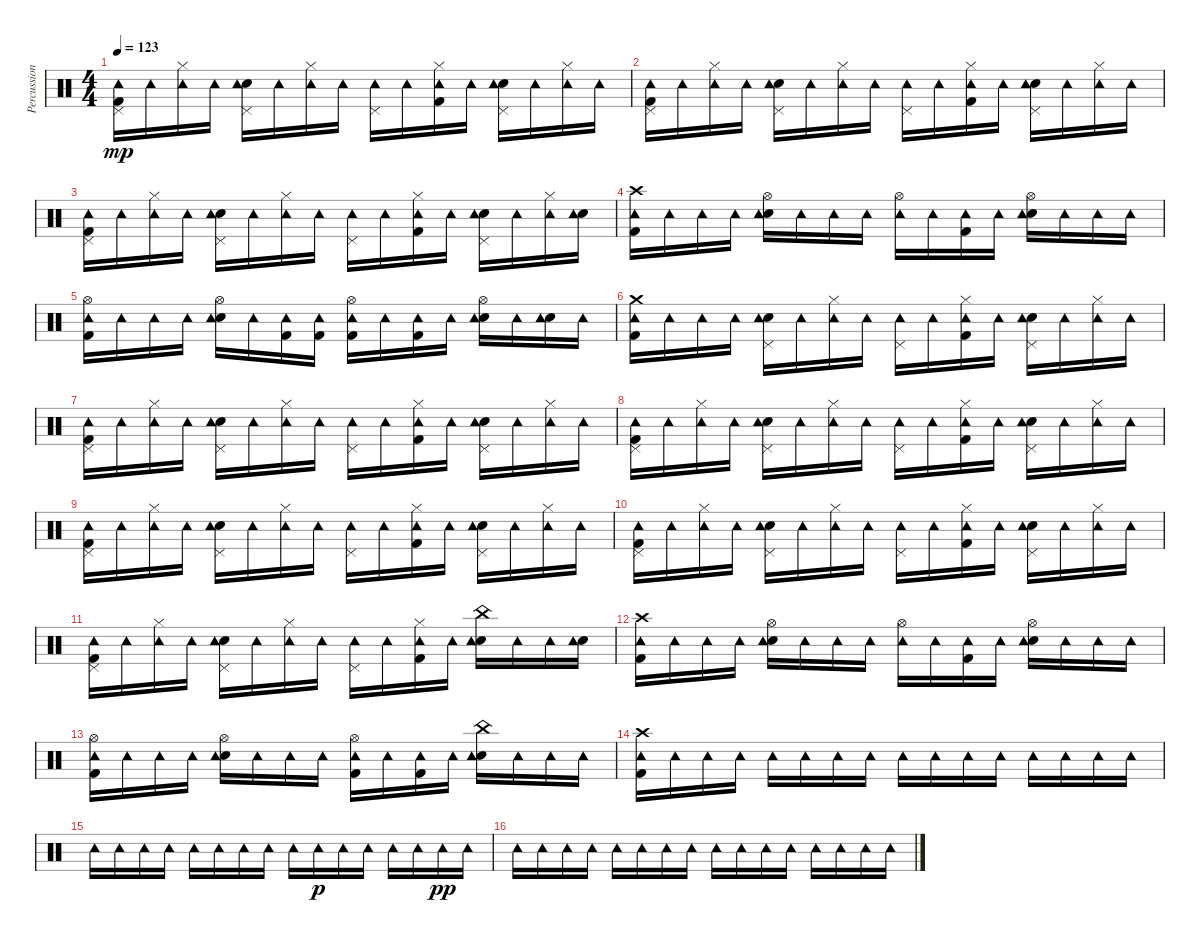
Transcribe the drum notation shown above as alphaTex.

\track ("Percussions" "Percussion") {instrument percussion}
\staff {score}
\articulation defaults
\ts (4 4)
\tempo 123
\clef neutral
\ks c
("Kick (hit) 2" "Pedal Hi-Hat (hit)" "Tambourine (hit)").16{dy mp} "Tambourine (hit)".16 ("Hi-Hat (closed)" "Tambourine (hit)").16 "Tambourine (hit)".16 ("Snare (hit) 2" "Pedal Hi-Hat (hit)" "Tambourine (hit)").16 "Tambourine (hit)".16 ("Hi-Hat (closed)" "Tambourine (hit)").16 "Tambourine (hit)".16 ("Pedal Hi-Hat (hit)" "Tambourine (hit)").16 "Tambourine (hit)".16 ("Kick (hit) 2" "Hi-Hat (closed)" "Tambourine (hit)").16 "Tambourine (hit)".16 ("Snare (hit) 2" "Pedal Hi-Hat (hit)" "Tambourine (hit)").16 "Tambourine (hit)".16 ("Hi-Hat (closed)" "Tambourine (hit)").16 "Tambourine (hit)".16 |
("Kick (hit) 2" "Pedal Hi-Hat (hit)" "Tambourine (hit)").16 "Tambourine (hit)".16 ("Hi-Hat (closed)" "Tambourine (hit)").16 "Tambourine (hit)".16 ("Snare (hit) 2" "Pedal Hi-Hat (hit)" "Tambourine (hit)").16 "Tambourine (hit)".16 ("Hi-Hat (closed)" "Tambourine (hit)").16 "Tambourine (hit)".16 ("Pedal Hi-Hat (hit)" "Tambourine (hit)").16 "Tambourine (hit)".16 ("Kick (hit) 2" "Hi-Hat (closed)" "Tambourine (hit)").16 "Tambourine (hit)".16 ("Snare (hit) 2" "Pedal Hi-Hat (hit)" "Tambourine (hit)").16 "Tambourine (hit)".16 ("Hi-Hat (closed)" "Tambourine (hit)").16 "Tambourine (hit)".16 |
("Kick (hit) 2" "Pedal Hi-Hat (hit)" "Tambourine (hit)").16 "Tambourine (hit)".16 ("Hi-Hat (closed)" "Tambourine (hit)").16 "Tambourine (hit)".16 ("Snare (hit) 2" "Pedal Hi-Hat (hit)" "Tambourine (hit)").16 "Tambourine (hit)".16 ("Hi-Hat (closed)" "Tambourine (hit)").16 "Tambourine (hit)".16 ("Pedal Hi-Hat (hit)" "Tambourine (hit)").16 "Tambourine (hit)".16 ("Kick (hit) 2" "Hi-Hat (closed)" "Tambourine (hit)").16 "Tambourine (hit)".16 ("Snare (hit) 2" "Pedal Hi-Hat (hit)" "Tambourine (hit)").16 "Tambourine (hit)".16 ("Hi-Hat (closed)" "Tambourine (hit)").16 ("Snare (hit) 2" "Tambourine (hit)").16 |
("Kick (hit) 2" "Crash high (hit)" "Tambourine (hit)").16 "Tambourine (hit)".16 "Tambourine (hit)".16 "Tambourine (hit)".16 ("Snare (hit) 2" "Hi-Hat (open)" "Tambourine (hit)").16 "Tambourine (hit)".16 "Tambourine (hit)".16 "Tambourine (hit)".16 ("Hi-Hat (open)" "Tambourine (hit)").16 "Tambourine (hit)".16 ("Kick (hit) 2" "Tambourine (hit)").16 "Tambourine (hit)".16 ("Snare (hit) 2" "Hi-Hat (open)" "Tambourine (hit)").16 "Tambourine (hit)".16 "Tambourine (hit)".16 "Tambourine (hit)".16 |
("Kick (hit) 2" "Hi-Hat (open)" "Tambourine (hit)").16 "Tambourine (hit)".16 "Tambourine (hit)".16 "Tambourine (hit)".16 ("Snare (hit) 2" "Hi-Hat (open)" "Tambourine (hit)").16 "Tambourine (hit)".16 ("Kick (hit) 2" "Tambourine (hit)").16 ("Kick (hit) 2" "Tambourine (hit)").16 ("Kick (hit) 2" "Hi-Hat (open)" "Tambourine (hit)").16 "Tambourine (hit)".16 ("Kick (hit) 2" "Tambourine (hit)").16 "Tambourine (hit)".16 ("Snare (hit) 2" "Hi-Hat (open)" "Tambourine (hit)").16 "Tambourine (hit)".16 ("Snare (hit) 2" "Tambourine (hit)").16 "Tambourine (hit)".16 |
("Kick (hit) 2" "Tambourine (hit)" "Crash medium (hit)").16 "Tambourine (hit)".16 "Tambourine (hit)".16 "Tambourine (hit)".16 ("Snare (hit) 2" "Pedal Hi-Hat (hit)" "Tambourine (hit)").16 "Tambourine (hit)".16 ("Hi-Hat (closed)" "Tambourine (hit)").16 "Tambourine (hit)".16 ("Pedal Hi-Hat (hit)" "Tambourine (hit)").16 "Tambourine (hit)".16 ("Kick (hit) 2" "Hi-Hat (closed)" "Tambourine (hit)").16 "Tambourine (hit)".16 ("Snare (hit) 2" "Pedal Hi-Hat (hit)" "Tambourine (hit)").16 "Tambourine (hit)".16 ("Hi-Hat (closed)" "Tambourine (hit)").16 "Tambourine (hit)".16 |
("Kick (hit) 2" "Pedal Hi-Hat (hit)" "Tambourine (hit)").16 "Tambourine (hit)".16 ("Hi-Hat (closed)" "Tambourine (hit)").16 "Tambourine (hit)".16 ("Snare (hit) 2" "Pedal Hi-Hat (hit)" "Tambourine (hit)").16 "Tambourine (hit)".16 ("Hi-Hat (closed)" "Tambourine (hit)").16 "Tambourine (hit)".16 ("Pedal Hi-Hat (hit)" "Tambourine (hit)").16 "Tambourine (hit)".16 ("Kick (hit) 2" "Hi-Hat (closed)" "Tambourine (hit)").16 "Tambourine (hit)".16 ("Snare (hit) 2" "Pedal Hi-Hat (hit)" "Tambourine (hit)").16 "Tambourine (hit)".16 ("Hi-Hat (closed)" "Tambourine (hit)").16 "Tambourine (hit)".16 |
("Kick (hit) 2" "Pedal Hi-Hat (hit)" "Tambourine (hit)").16 "Tambourine (hit)".16 ("Hi-Hat (closed)" "Tambourine (hit)").16 "Tambourine (hit)".16 ("Snare (hit) 2" "Pedal Hi-Hat (hit)" "Tambourine (hit)").16 "Tambourine (hit)".16 ("Hi-Hat (closed)" "Tambourine (hit)").16 "Tambourine (hit)".16 ("Pedal Hi-Hat (hit)" "Tambourine (hit)").16 "Tambourine (hit)".16 ("Kick (hit) 2" "Hi-Hat (closed)" "Tambourine (hit)").16 "Tambourine (hit)".16 ("Snare (hit) 2" "Pedal Hi-Hat (hit)" "Tambourine (hit)").16 "Tambourine (hit)".16 ("Hi-Hat (closed)" "Tambourine (hit)").16 "Tambourine (hit)".16 |
("Kick (hit) 2" "Pedal Hi-Hat (hit)" "Tambourine (hit)").16 "Tambourine (hit)".16 ("Hi-Hat (closed)" "Tambourine (hit)").16 "Tambourine (hit)".16 ("Snare (hit) 2" "Pedal Hi-Hat (hit)" "Tambourine (hit)").16 "Tambourine (hit)".16 ("Hi-Hat (closed)" "Tambourine (hit)").16 "Tambourine (hit)".16 ("Pedal Hi-Hat (hit)" "Tambourine (hit)").16 "Tambourine (hit)".16 ("Kick (hit) 2" "Hi-Hat (closed)" "Tambourine (hit)").16 "Tambourine (hit)".16 ("Snare (hit) 2" "Pedal Hi-Hat (hit)" "Tambourine (hit)").16 "Tambourine (hit)".16 ("Hi-Hat (closed)" "Tambourine (hit)").16 "Tambourine (hit)".16 |
("Kick (hit) 2" "Pedal Hi-Hat (hit)" "Tambourine (hit)").16 "Tambourine (hit)".16 ("Hi-Hat (closed)" "Tambourine (hit)").16 "Tambourine (hit)".16 ("Snare (hit) 2" "Pedal Hi-Hat (hit)" "Tambourine (hit)").16 "Tambourine (hit)".16 ("Hi-Hat (closed)" "Tambourine (hit)").16 "Tambourine (hit)".16 ("Pedal Hi-Hat (hit)" "Tambourine (hit)").16 "Tambourine (hit)".16 ("Kick (hit) 2" "Hi-Hat (closed)" "Tambourine (hit)").16 "Tambourine (hit)".16 ("Snare (hit) 2" "Pedal Hi-Hat (hit)" "Tambourine (hit)").16 "Tambourine (hit)".16 ("Hi-Hat (closed)" "Tambourine (hit)").16 "Tambourine (hit)".16 |
("Kick (hit) 2" "Pedal Hi-Hat (hit)" "Tambourine (hit)").16 "Tambourine (hit)".16 ("Hi-Hat (closed)" "Tambourine (hit)").16 "Tambourine (hit)".16 ("Snare (hit) 2" "Pedal Hi-Hat (hit)" "Tambourine (hit)").16 "Tambourine (hit)".16 ("Hi-Hat (closed)" "Tambourine (hit)").16 "Tambourine (hit)".16 ("Pedal Hi-Hat (hit)" "Tambourine (hit)").16 "Tambourine (hit)".16 ("Kick (hit) 2" "Hi-Hat (closed)" "Tambourine (hit)").16 "Tambourine (hit)".16 ("Snare (hit) 2" "China (hit)" "Tambourine (hit)").16 "Tambourine (hit)".16 "Tambourine (hit)".16 ("Snare (hit) 2" "Tambourine (hit)").16 |
("Kick (hit) 2" "Crash high (hit)" "Tambourine (hit)").16 "Tambourine (hit)".16 "Tambourine (hit)".16 "Tambourine (hit)".16 ("Snare (hit) 2" "Hi-Hat (open)" "Tambourine (hit)").16 "Tambourine (hit)".16 "Tambourine (hit)".16 "Tambourine (hit)".16 ("Hi-Hat (open)" "Tambourine (hit)").16 "Tambourine (hit)".16 ("Kick (hit) 2" "Tambourine (hit)").16 "Tambourine (hit)".16 ("Snare (hit) 2" "Hi-Hat (open)" "Tambourine (hit)").16 "Tambourine (hit)".16 "Tambourine (hit)".16 "Tambourine (hit)".16 |
("Kick (hit) 2" "Hi-Hat (open)" "Tambourine (hit)").16 "Tambourine (hit)".16 "Tambourine (hit)".16 "Tambourine (hit)".16 ("Snare (hit) 2" "Hi-Hat (open)" "Tambourine (hit)").16 "Tambourine (hit)".16 "Tambourine (hit)".16 "Tambourine (hit)".16 ("Kick (hit) 2" "Hi-Hat (open)" "Tambourine (hit)").16 "Tambourine (hit)".16 ("Kick (hit) 2" "Tambourine (hit)").16 "Tambourine (hit)".16 ("Snare (hit) 2" "China (hit)" "Tambourine (hit)").16 "Tambourine (hit)".16 "Tambourine (hit)".16 "Tambourine (hit)".16 |
("Kick (hit) 2" "Crash high (hit)" "Tambourine (hit)").16 "Tambourine (hit)".16 "Tambourine (hit)".16 "Tambourine (hit)".16 "Tambourine (hit)".16 "Tambourine (hit)".16 "Tambourine (hit)".16 "Tambourine (hit)".16 "Tambourine (hit)".16 "Tambourine (hit)".16 "Tambourine (hit)".16 "Tambourine (hit)".16 "Tambourine (hit)".16 "Tambourine (hit)".16 "Tambourine (hit)".16 "Tambourine (hit)".16 |
"Tambourine (hit)".16 "Tambourine (hit)".16 "Tambourine (hit)".16 "Tambourine (hit)".16 "Tambourine (hit)".16 "Tambourine (hit)".16 "Tambourine (hit)".16 "Tambourine (hit)".16 "Tambourine (hit)".16 "Tambourine (hit)".16{dy p} "Tambourine (hit)".16 "Tambourine (hit)".16 "Tambourine (hit)".16 "Tambourine (hit)".16 "Tambourine (hit)".16{dy pp} "Tambourine (hit)".16 |
"Tambourine (hit)".16 "Tambourine (hit)".16 "Tambourine (hit)".16 "Tambourine (hit)".16 "Tambourine (hit)".16 "Tambourine (hit)".16 "Tambourine (hit)".16 "Tambourine (hit)".16 "Tambourine (hit)".16 "Tambourine (hit)".16 "Tambourine (hit)".16 "Tambourine (hit)".16 "Tambourine (hit)".16 "Tambourine (hit)".16 "Tambourine (hit)".16 "Tambourine (hit)".16
